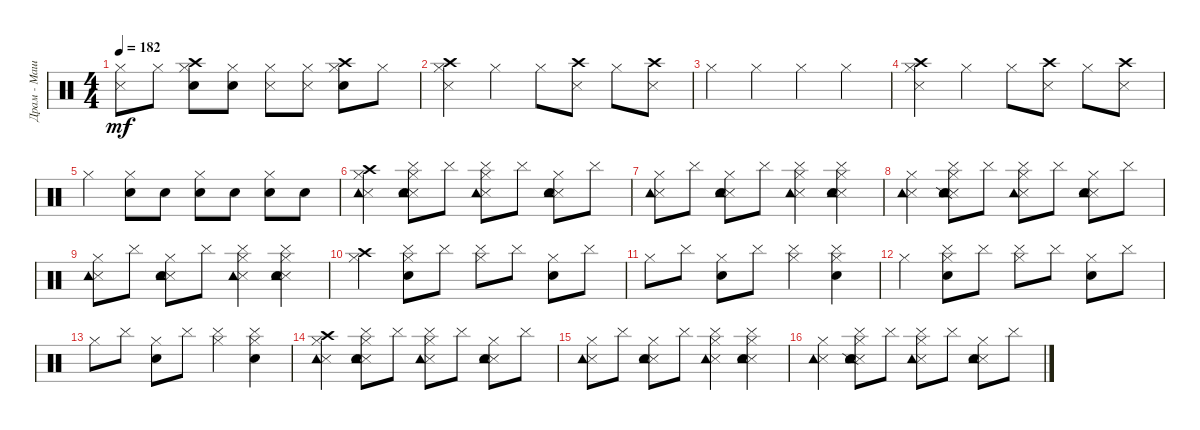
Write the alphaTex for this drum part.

\track ("Драм - Машина" "Драм - Маш") {instrument percussion}
\staff {score}
\articulation defaults
\ts (4 4)
\tempo 182
\clef neutral
\ks c
("Metronome (hit)" "Hi-Hat (closed)").8{dy mf} "Hi-Hat (closed)".8 ("Metronome (bell)" "Crash high (hit)" "Hi-Hat (closed)").8 ("Metronome (bell)" "Hi-Hat (closed)").8 ("Metronome (hit)" "Hi-Hat (closed)").8 ("Metronome (hit)" "Hi-Hat (closed)").8 ("Metronome (bell)" "Crash high (hit)" "Hi-Hat (closed)").8 "Hi-Hat (closed)".8 |
("Crash high (hit)" "Metronome (hit)" "Hi-Hat (closed)").4 "Hi-Hat (closed)".4 "Hi-Hat (closed)".8 ("Crash high (hit)" "Metronome (hit)").8 "Hi-Hat (closed)".8 ("Crash high (hit)" "Metronome (hit)").8 |
"Hi-Hat (closed)".4 "Hi-Hat (closed)".4 "Hi-Hat (closed)".4 "Hi-Hat (closed)".4 |
("Crash high (hit)" "Metronome (hit)" "Hi-Hat (closed)").4 "Hi-Hat (closed)".4 "Hi-Hat (closed)".8 ("Crash high (hit)" "Metronome (hit)").8 "Hi-Hat (closed)".8 ("Metronome (hit)" "Crash high (hit)").8 |
"Hi-Hat (closed)".4 ("Metronome (bell)" "Hi-Hat (closed)").8 "Metronome (bell)".8 ("Metronome (bell)" "Hi-Hat (closed)").8 "Metronome (bell)".8 ("Metronome (bell)" "Hi-Hat (closed)").8 "Metronome (bell)".8 |
("Metronome (hit)" "Crash high (hit)" "Tambourine (hit)" "Hi-Hat (closed)").4 ("Metronome (hit)" "Metronome (bell)" "Cymbal (hit)" "Tambourine (hit)" "Hi-Hat (closed)").8 "Cymbal (hit)".8 ("Metronome (hit)" "Cymbal (hit)" "Hi-Hat (closed)" "Tambourine (hit)").8 "Cymbal (hit)".8 ("Metronome (hit)" "Metronome (bell)" "Tambourine (hit)" "Hi-Hat (closed)").8 "Cymbal (hit)".8 |
("Metronome (hit)" "Hi-Hat (closed)" "Tambourine (hit)").8 "Cymbal (hit)".8 ("Metronome (hit)" "Metronome (bell)" "Tambourine (hit)" "Hi-Hat (closed)").8 "Cymbal (hit)".8 ("Metronome (hit)" "Cymbal (hit)" "Hi-Hat (closed)" "Tambourine (hit)").4 ("Metronome (hit)" "Metronome (bell)" "Cymbal (hit)" "Hi-Hat (closed)" "Tambourine (hit)").4 |
("Metronome (hit)" "Hi-Hat (closed)" "Tambourine (hit)").4 ("Metronome (hit)" "Metronome (bell)" "Snare (side stick) 2" "Cymbal (hit)" "Tambourine (hit)" "Hi-Hat (closed)").8 "Cymbal (hit)".8 ("Metronome (hit)" "Cymbal (hit)" "Tambourine (hit)" "Hi-Hat (closed)").8 "Cymbal (hit)".8 ("Metronome (hit)" "Metronome (bell)" "Tambourine (hit)" "Hi-Hat (closed)").8 "Cymbal (hit)".8 |
("Metronome (hit)" "Tambourine (hit)" "Hi-Hat (closed)").8 "Cymbal (hit)".8 ("Metronome (hit)" "Metronome (bell)" "Hi-Hat (closed)" "Tambourine (hit)").8 "Cymbal (hit)".8 ("Metronome (hit)" "Cymbal (hit)" "Hi-Hat (closed)" "Tambourine (hit)").4 ("Metronome (hit)" "Metronome (bell)" "Cymbal (hit)" "Hi-Hat (closed)" "Tambourine (hit)").4 |
("Crash high (hit)" "Hi-Hat (closed)").4 ("Metronome (bell)" "Hi-Hat (closed)" "Cymbal (hit)").8 "Cymbal (hit)".8 ("Hi-Hat (closed)" "Cymbal (hit)").8 "Cymbal (hit)".8 ("Metronome (bell)" "Hi-Hat (closed)").8 "Cymbal (hit)".8 |
"Hi-Hat (closed)".8 "Cymbal (hit)".8 ("Metronome (bell)" "Hi-Hat (closed)").8 "Cymbal (hit)".8 ("Hi-Hat (closed)" "Cymbal (hit)").4 ("Metronome (bell)" "Hi-Hat (closed)" "Cymbal (hit)").4 |
"Hi-Hat (closed)".4 ("Metronome (bell)" "Hi-Hat (closed)" "Cymbal (hit)").8 "Cymbal (hit)".8 ("Hi-Hat (closed)" "Cymbal (hit)").8 "Cymbal (hit)".8 ("Metronome (bell)" "Hi-Hat (closed)").8 "Cymbal (hit)".8 |
"Hi-Hat (closed)".8 "Cymbal (hit)".8 ("Metronome (bell)" "Hi-Hat (closed)").8 "Cymbal (hit)".8 ("Hi-Hat (closed)" "Cymbal (hit)").4 ("Metronome (bell)" "Hi-Hat (closed)" "Cymbal (hit)").4 |
("Metronome (hit)" "Crash high (hit)" "Tambourine (hit)" "Hi-Hat (closed)").4 ("Metronome (hit)" "Metronome (bell)" "Tambourine (hit)" "Hi-Hat (closed)" "Cymbal (hit)").8 "Cymbal (hit)".8 ("Metronome (hit)" "Tambourine (hit)" "Hi-Hat (closed)" "Cymbal (hit)").8 "Cymbal (hit)".8 ("Metronome (hit)" "Metronome (bell)" "Hi-Hat (closed)" "Tambourine (hit)").8 "Cymbal (hit)".8 |
("Metronome (hit)" "Hi-Hat (closed)" "Tambourine (hit)").8 "Cymbal (hit)".8 ("Metronome (hit)" "Metronome (bell)" "Tambourine (hit)" "Hi-Hat (closed)").8 "Cymbal (hit)".8 ("Metronome (hit)" "Cymbal (hit)" "Hi-Hat (closed)" "Tambourine (hit)").4 ("Metronome (hit)" "Metronome (bell)" "Cymbal (hit)" "Hi-Hat (closed)" "Tambourine (hit)").4 |
("Metronome (hit)" "Hi-Hat (closed)" "Tambourine (hit)").4 ("Metronome (hit)" "Metronome (bell)" "Snare (side stick) 2" "Cymbal (hit)" "Hi-Hat (closed)" "Tambourine (hit)").8 "Cymbal (hit)".8 ("Metronome (hit)" "Cymbal (hit)" "Tambourine (hit)" "Hi-Hat (closed)").8 "Cymbal (hit)".8 ("Metronome (hit)" "Metronome (bell)" "Tambourine (hit)" "Hi-Hat (closed)").8 "Cymbal (hit)".8
